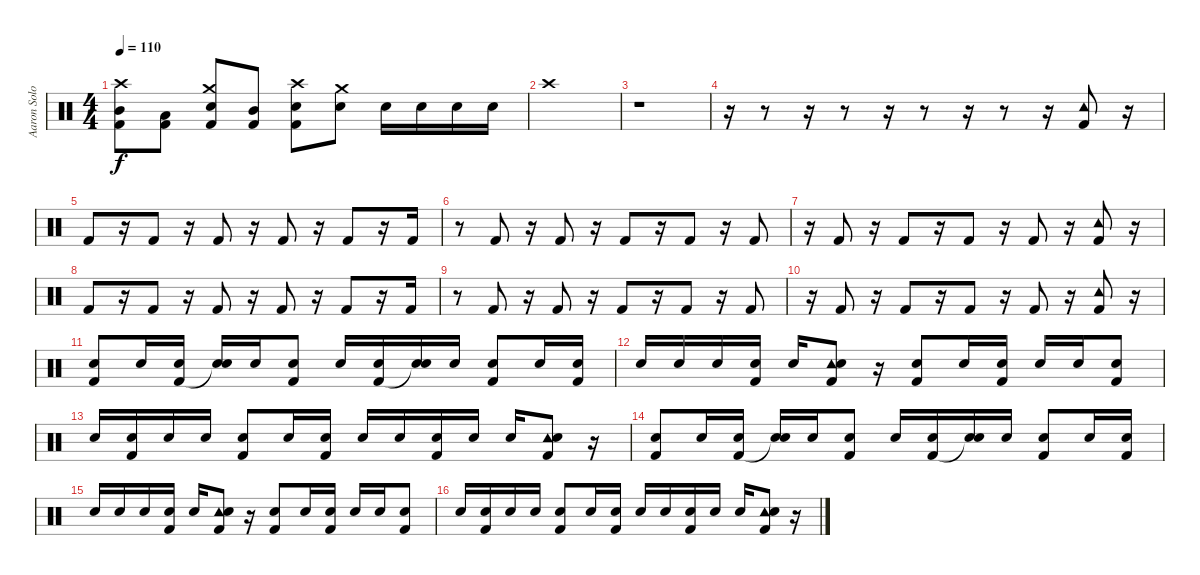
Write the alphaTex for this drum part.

\track ("Aaron Solowoniuk - Drum" "Aaron Solo") {instrument percussion}
\staff {score}
\articulation defaults
\ts (4 4)
\tempo 110
\clef neutral
\ks c
("Crash high (hit)" "Mid Tom (hit)" "Kick (hit) 2").8{dy f} ("Low Tom (hit)" "Kick (hit) 2").8 ("Crash medium (hit)" "Electric Snare (hit)" "Kick (hit) 2").8 ("Mid Tom (hit)" "Kick (hit) 2").8 ("Crash high (hit)" "Electric Snare (hit)" "Kick (hit) 2").8 ("Crash medium (hit)" "Electric Snare (hit)").8 "Electric Snare (hit)".16 "Electric Snare (hit)".16 "Electric Snare (hit)".16 "Electric Snare (hit)".16 |
"Crash high (hit)".1 |
r.1 |
r.16 r.8 r.16 r.8 r.16 r.8 r.16 r.8 r.16 ("Tambourine (hit)" "Kick (hit) 2").8 r.16 |
"Kick (hit) 2".8 r.16 "Kick (hit) 2".8 r.16 "Kick (hit) 2".8 r.16 "Kick (hit) 2".8 r.16 "Kick (hit) 2".8 r.16 "Kick (hit) 2".16 |
r.8 "Kick (hit) 2".8 r.16 "Kick (hit) 2".8 r.16 "Kick (hit) 2".8 r.16 "Kick (hit) 2".8 r.16 "Kick (hit) 2".8 |
r.16 "Kick (hit) 2".8 r.16 "Kick (hit) 2".8 r.16 "Kick (hit) 2".8 r.16 "Kick (hit) 2".8 r.16 ("Tambourine (hit)" "Kick (hit) 2").8 r.16 |
"Kick (hit) 2".8 r.16 "Kick (hit) 2".8 r.16 "Kick (hit) 2".8 r.16 "Kick (hit) 2".8 r.16 "Kick (hit) 2".8 r.16 "Kick (hit) 2".16 |
r.8 "Kick (hit) 2".8 r.16 "Kick (hit) 2".8 r.16 "Kick (hit) 2".8 r.16 "Kick (hit) 2".8 r.16 "Kick (hit) 2".8 |
r.16 "Kick (hit) 2".8 r.16 "Kick (hit) 2".8 r.16 "Kick (hit) 2".8 r.16 "Kick (hit) 2".8 r.16 ("Tambourine (hit)" "Kick (hit) 2").8 r.16 |
("Electric Snare (hit)" "Kick (hit) 2").8 "Electric Snare (hit)".16 ("Electric Snare (hit)" "Kick (hit) 2").16 ("Electric Snare (hit)" "Snare (hit)"{t}).16 "Electric Snare (hit)".16 ("Electric Snare (hit)" "Kick (hit) 2").8 "Electric Snare (hit)".16 ("Electric Snare (hit)" "Kick (hit) 2").16 ("Electric Snare (hit)" "Snare (hit)"{t}).16 "Electric Snare (hit)".16 ("Electric Snare (hit)" "Kick (hit) 2").8 "Electric Snare (hit)".16 ("Electric Snare (hit)" "Kick (hit) 2").16 |
"Electric Snare (hit)".16 "Electric Snare (hit)".16 "Electric Snare (hit)".16 ("Electric Snare (hit)" "Kick (hit) 2").16 "Electric Snare (hit)".16 ("Tambourine (hit)" "Electric Snare (hit)" "Kick (hit) 2").8 r.16 ("Electric Snare (hit)" "Kick (hit) 2").8 "Electric Snare (hit)".16 ("Electric Snare (hit)" "Kick (hit) 2").16 "Electric Snare (hit)".16 "Electric Snare (hit)".16 ("Electric Snare (hit)" "Kick (hit) 2").8 |
"Electric Snare (hit)".16 ("Electric Snare (hit)" "Kick (hit) 2").16 "Electric Snare (hit)".16 "Electric Snare (hit)".16 ("Electric Snare (hit)" "Kick (hit) 2").8 "Electric Snare (hit)".16 ("Electric Snare (hit)" "Kick (hit) 2").16 "Electric Snare (hit)".16 "Electric Snare (hit)".16 ("Electric Snare (hit)" "Kick (hit) 2").16 "Electric Snare (hit)".16 "Electric Snare (hit)".16 ("Tambourine (hit)" "Electric Snare (hit)" "Kick (hit) 2").8 r.16 |
("Electric Snare (hit)" "Kick (hit) 2").8 "Electric Snare (hit)".16 ("Electric Snare (hit)" "Kick (hit) 2").16 ("Electric Snare (hit)" "Snare (hit)"{t}).16 "Electric Snare (hit)".16 ("Electric Snare (hit)" "Kick (hit) 2").8 "Electric Snare (hit)".16 ("Electric Snare (hit)" "Kick (hit) 2").16 ("Electric Snare (hit)" "Snare (hit)"{t}).16 "Electric Snare (hit)".16 ("Electric Snare (hit)" "Kick (hit) 2").8 "Electric Snare (hit)".16 ("Electric Snare (hit)" "Kick (hit) 2").16 |
"Electric Snare (hit)".16 "Electric Snare (hit)".16 "Electric Snare (hit)".16 ("Electric Snare (hit)" "Kick (hit) 2").16 "Electric Snare (hit)".16 ("Tambourine (hit)" "Electric Snare (hit)" "Kick (hit) 2").8 r.16 ("Electric Snare (hit)" "Kick (hit) 2").8 "Electric Snare (hit)".16 ("Electric Snare (hit)" "Kick (hit) 2").16 "Electric Snare (hit)".16 "Electric Snare (hit)".16 ("Electric Snare (hit)" "Kick (hit) 2").8 |
"Electric Snare (hit)".16 ("Electric Snare (hit)" "Kick (hit) 2").16 "Electric Snare (hit)".16 "Electric Snare (hit)".16 ("Electric Snare (hit)" "Kick (hit) 2").8 "Electric Snare (hit)".16 ("Electric Snare (hit)" "Kick (hit) 2").16 "Electric Snare (hit)".16 "Electric Snare (hit)".16 ("Electric Snare (hit)" "Kick (hit) 2").16 "Electric Snare (hit)".16 "Electric Snare (hit)".16 ("Tambourine (hit)" "Electric Snare (hit)" "Kick (hit) 2").8 r.16
